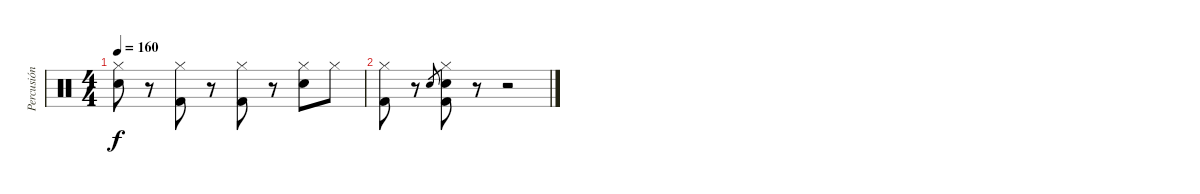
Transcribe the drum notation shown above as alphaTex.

\track ("Percusión" "Percusión") {instrument percussion}
\staff {score}
\articulation defaults
\ts (4 4)
\tempo 160
\clef neutral
\ks c
("Hi-Hat (closed)" "Snare (hit) 2").8{dy f} r.8 ("Hi-Hat (closed)" "Kick (hit) 2").8 r.8 ("Hi-Hat (closed)" "Kick (hit) 2").8 r.8 ("Hi-Hat (closed)" "Snare (hit) 2").8 "Hi-Hat (closed)".8 |
("Hi-Hat (closed)" "Kick (hit) 2").8 r.8 "Snare (hit) 2".8{gr} ("Hi-Hat (closed)" "Snare (hit) 2" "Kick (hit) 2").8 r.8 r.2
